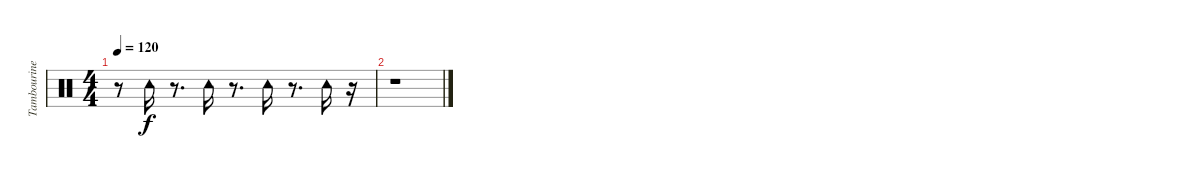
\track ("Tambourine" "Tambourine") {instrument percussion}
\staff {score}
\articulation defaults
\ts (4 4)
\tempo 120
\clef neutral
\ks c
r.8{dy f} "Tambourine (hit)".16 r.8{d} "Tambourine (hit)".16 r.8{d} "Tambourine (hit)".16 r.8{d} "Tambourine (hit)".16 r.16 |
r.1
